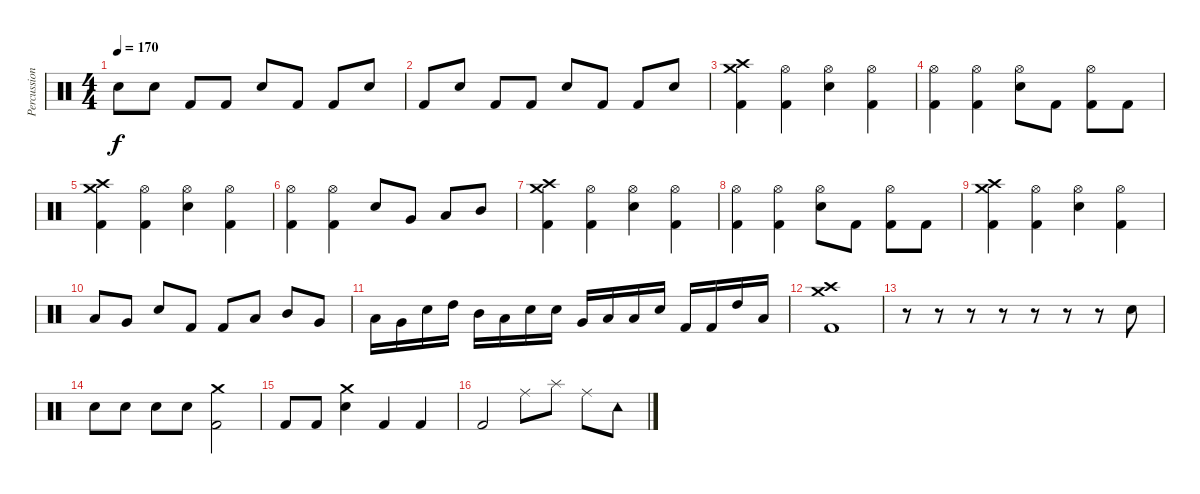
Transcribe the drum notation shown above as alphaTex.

\track ("Percussion" "Percussion") {instrument percussion}
\staff {score}
\articulation defaults
\ts (4 4)
\tempo 170
\clef neutral
\ks c "Snare (hit) 2".8{dy f} "Snare (hit) 2".8 "Kick (hit) 2".8 "Kick (hit) 2".8 "Snare (hit) 2".8 "Kick (hit) 2".8 "Kick (hit) 2".8 "Snare (hit) 2".8
|
"Kick (hit) 2".8 "Snare (hit) 2".8 "Kick (hit) 2".8 "Kick (hit) 2".8 "Snare (hit) 2".8 "Kick (hit) 2".8 "Kick (hit) 2".8 "Snare (hit) 2".8 |
("Crash medium (hit)" "Crash high (hit)" "Kick (hit) 2").4 ("Hi-Hat (open)" "Kick (hit) 2").4 ("Hi-Hat (open)" "Snare (hit) 2").4 ("Hi-Hat (open)" "Kick (hit) 2").4 |
("Hi-Hat (open)" "Kick (hit) 2").4 ("Hi-Hat (open)" "Kick (hit) 2").4 ("Hi-Hat (open)" "Snare (hit) 2").8 "Kick (hit) 2".8 ("Hi-Hat (open)" "Kick (hit) 2").8 "Kick (hit) 2".8 |
("Crash high (hit)" "Crash medium (hit)" "Kick (hit) 2").4 ("Hi-Hat (open)" "Kick (hit) 2").4 ("Hi-Hat (open)" "Snare (hit) 2").4 ("Hi-Hat (open)" "Kick (hit) 2").4 |
("Hi-Hat (open)" "Kick (hit) 2").4 ("Hi-Hat (open)" "Kick (hit) 2").4 "Snare (hit) 2".8 "Very Low Tom (hit)".8 "Low Tom (hit)".8 "Mid Tom (hit)".8 |
("Crash medium (hit)" "Crash high (hit)" "Kick (hit) 2").4 ("Hi-Hat (open)" "Kick (hit) 2").4 ("Hi-Hat (open)" "Snare (hit) 2").4 ("Hi-Hat (open)" "Kick (hit) 2").4 |
("Hi-Hat (open)" "Kick (hit) 2").4 ("Hi-Hat (open)" "Kick (hit) 2").4 ("Hi-Hat (open)" "Snare (hit) 2").8 "Kick (hit) 2".8 ("Hi-Hat (open)" "Kick (hit) 2").8 "Kick (hit) 2".8 |
("Crash high (hit)" "Crash medium (hit)" "Kick (hit) 2").4 ("Hi-Hat (open)" "Kick (hit) 2").4 ("Hi-Hat (open)" "Snare (hit) 2").4 ("Hi-Hat (open)" "Kick (hit) 2").4 |
"Low Floor Tom (hit)".8 "Very Low Tom (hit)".8 "Snare (hit) 2".8 "Kick (hit) 2".8 "Kick (hit) 2".8 "Low Tom (hit)".8 "Mid Tom (hit)".8 "Very Low Tom (hit)".8 |
"Low Floor Tom (hit)".16 "Very Low Tom (hit)".16 "Snare (hit) 2".16 "High Tom (hit)".16 "Mid Tom (hit)".16 "Low Tom (hit)".16 "Snare (hit) 2".16 "Snare (hit) 2".16 "Very Low Tom (hit)".16 "Low Floor Tom (hit)".16 "Low Floor Tom (hit)".16 "Snare (hit) 2".16 "Kick (hit) 2".16 "Kick (hit) 2".16 "High Tom (hit)".16 "Low Tom (hit)".16 |
("Crash high (hit)" "Crash medium (hit)" "Kick (hit) 2").1 |
r.8 r.8 r.8 r.8 r.8 r.8 r.8 "Snare (hit) 2".8 |
"Snare (hit) 2".8 "Snare (hit) 2".8 "Snare (hit) 2".8 "Snare (hit) 2".8 ("Crash medium (hit)" "Kick (hit) 2").2 |
"Kick (hit) 2".8 "Kick (hit) 2".8 ("Crash medium (hit)" "Snare (hit) 2").4 "Kick (hit) 2".4 "Kick (hit) 2".4 |
"Kick (hit) 2".2 "Ride (middle)".8 "Splash (hit)".8 "Ride (middle)".8 "Tambourine (hit)".8
